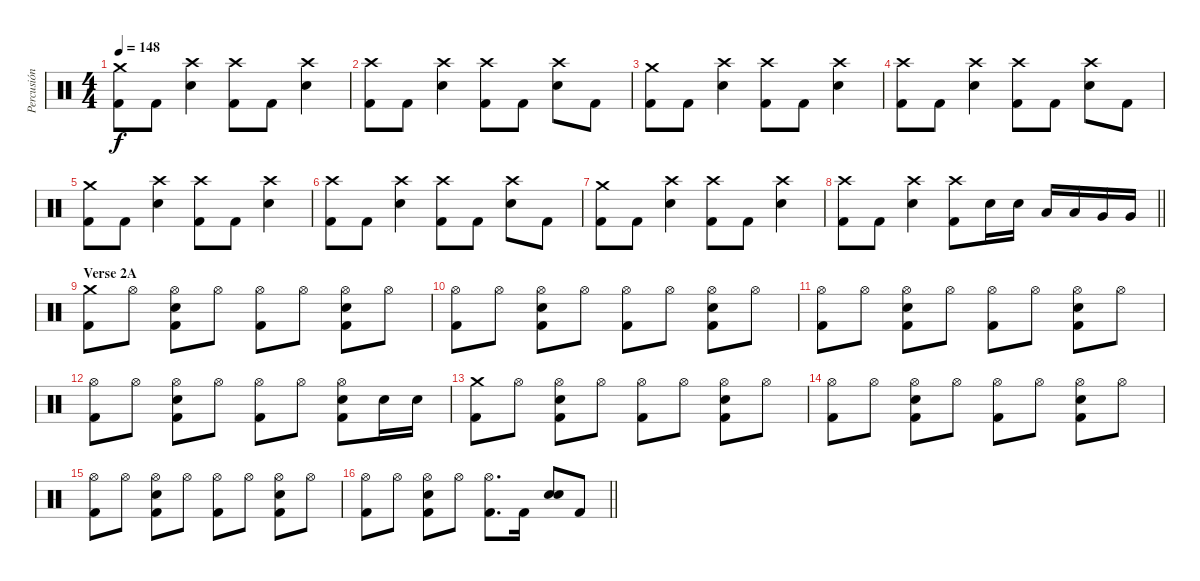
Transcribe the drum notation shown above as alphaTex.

\track ("Percusión" "Percusión") {instrument percussion}
\staff {score}
\articulation defaults
\ts (4 4)
\tempo 148
\clef neutral
\ks c
("Crash medium (hit)" "Kick (hit) 2").8{dy f} "Kick (hit) 2".8 ("Crash high (hit)" "Electric Snare (hit)").4 ("Crash high (hit)" "Kick (hit) 2").8 "Kick (hit) 2".8 ("Crash high (hit)" "Electric Snare (hit)").4 |
("Crash high (hit)" "Kick (hit) 2").8 "Kick (hit) 2".8 ("Crash high (hit)" "Electric Snare (hit)").4 ("Crash high (hit)" "Kick (hit) 2").8 "Kick (hit) 2".8 ("Crash high (hit)" "Electric Snare (hit)").8 "Kick (hit) 2".8 |
("Crash medium (hit)" "Kick (hit) 2").8 "Kick (hit) 2".8 ("Crash high (hit)" "Electric Snare (hit)").4 ("Crash high (hit)" "Kick (hit) 2").8 "Kick (hit) 2".8 ("Crash high (hit)" "Electric Snare (hit)").4 |
("Crash high (hit)" "Kick (hit) 2").8 "Kick (hit) 2".8 ("Crash high (hit)" "Electric Snare (hit)").4 ("Crash high (hit)" "Kick (hit) 2").8 "Kick (hit) 2".8 ("Crash high (hit)" "Electric Snare (hit)").8 "Kick (hit) 2".8 |
("Crash medium (hit)" "Kick (hit) 2").8 "Kick (hit) 2".8 ("Crash high (hit)" "Electric Snare (hit)").4 ("Crash high (hit)" "Kick (hit) 2").8 "Kick (hit) 2".8 ("Crash high (hit)" "Electric Snare (hit)").4 |
("Crash high (hit)" "Kick (hit) 2").8 "Kick (hit) 2".8 ("Crash high (hit)" "Electric Snare (hit)").4 ("Crash high (hit)" "Kick (hit) 2").8 "Kick (hit) 2".8 ("Crash high (hit)" "Electric Snare (hit)").8 "Kick (hit) 2".8 |
("Crash medium (hit)" "Kick (hit) 2").8 "Kick (hit) 2".8 ("Crash high (hit)" "Electric Snare (hit)").4 ("Crash high (hit)" "Kick (hit) 2").8 "Kick (hit) 2".8 ("Crash high (hit)" "Electric Snare (hit)").4 |
\barLineRight lightlight
("Crash high (hit)" "Kick (hit) 2").8 "Kick (hit) 2".8 ("Crash high (hit)" "Electric Snare (hit)").4 ("Crash high (hit)" "Kick (hit) 2").8 "Electric Snare (hit)".16 "Electric Snare (hit)".16 "Low Tom (hit)".16 "Low Tom (hit)".16 "Very Low Tom (hit)".16 "Very Low Tom (hit)".16 |
\section ("" "Verse 2A")
("Crash medium (hit)" "Kick (hit) 2").8 "Hi-Hat (open)".8 ("Hi-Hat (open)" "Electric Snare (hit)" "Kick (hit) 2").8 "Hi-Hat (open)".8 ("Hi-Hat (open)" "Kick (hit) 2").8 "Hi-Hat (open)".8 ("Hi-Hat (open)" "Electric Snare (hit)" "Kick (hit) 2").8 "Hi-Hat (open)".8 |
("Hi-Hat (open)" "Kick (hit) 2").8 "Hi-Hat (open)".8 ("Hi-Hat (open)" "Electric Snare (hit)" "Kick (hit) 2").8 "Hi-Hat (open)".8 ("Hi-Hat (open)" "Kick (hit) 2").8 "Hi-Hat (open)".8 ("Hi-Hat (open)" "Electric Snare (hit)" "Kick (hit) 2").8 "Hi-Hat (open)".8 |
("Hi-Hat (open)" "Kick (hit) 2").8 "Hi-Hat (open)".8 ("Hi-Hat (open)" "Electric Snare (hit)" "Kick (hit) 2").8 "Hi-Hat (open)".8 ("Hi-Hat (open)" "Kick (hit) 2").8 "Hi-Hat (open)".8 ("Hi-Hat (open)" "Electric Snare (hit)" "Kick (hit) 2").8 "Hi-Hat (open)".8 |
("Hi-Hat (open)" "Kick (hit) 2").8 "Hi-Hat (open)".8 ("Hi-Hat (open)" "Electric Snare (hit)" "Kick (hit) 2").8 "Hi-Hat (open)".8 ("Hi-Hat (open)" "Kick (hit) 2").8 "Hi-Hat (open)".8 ("Hi-Hat (open)" "Electric Snare (hit)" "Kick (hit) 2").8 "Electric Snare (hit)".16 "Electric Snare (hit)".16 |
("Crash medium (hit)" "Kick (hit) 2").8 "Hi-Hat (open)".8 ("Hi-Hat (open)" "Electric Snare (hit)" "Kick (hit) 2").8 "Hi-Hat (open)".8 ("Hi-Hat (open)" "Kick (hit) 2").8 "Hi-Hat (open)".8 ("Hi-Hat (open)" "Electric Snare (hit)" "Kick (hit) 2").8 "Hi-Hat (open)".8 |
("Hi-Hat (open)" "Kick (hit) 2").8 "Hi-Hat (open)".8 ("Hi-Hat (open)" "Electric Snare (hit)" "Kick (hit) 2").8 "Hi-Hat (open)".8 ("Hi-Hat (open)" "Kick (hit) 2").8 "Hi-Hat (open)".8 ("Hi-Hat (open)" "Electric Snare (hit)" "Kick (hit) 2").8 "Hi-Hat (open)".8 |
("Hi-Hat (open)" "Kick (hit) 2").8 "Hi-Hat (open)".8 ("Hi-Hat (open)" "Electric Snare (hit)" "Kick (hit) 2").8 "Hi-Hat (open)".8 ("Hi-Hat (open)" "Kick (hit) 2").8 "Hi-Hat (open)".8 ("Hi-Hat (open)" "Electric Snare (hit)" "Kick (hit) 2").8 "Hi-Hat (open)".8 |
\barLineRight lightlight
("Hi-Hat (open)" "Kick (hit) 2").8 "Hi-Hat (open)".8 ("Hi-Hat (open)" "Electric Snare (hit)" "Kick (hit) 2").8 "Hi-Hat (open)".8 ("Hi-Hat (open)" "Kick (hit) 2").8{d} "Kick (hit) 2".16 ("Electric Snare (hit)" "Electric Snare (hit)").8{bd 120} "Kick (hit) 2".8
